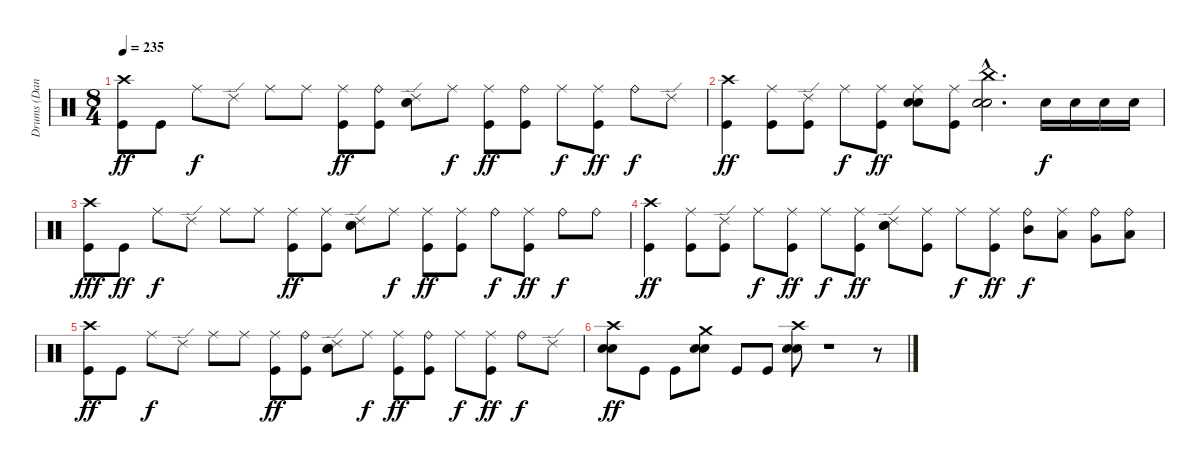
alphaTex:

\track ("Drums (Dan)" "Drums (Dan") {instrument percussion}
\staff {score}
\articulation defaults
\ts (8 4)
\tempo 235
\clef neutral
\ks c
("Kick (hit)" "Crash high (hit)").8{dy ff} "Kick (hit)".8 "Ride (middle)".8{dy f} "Ride (edge) 2".8 "Ride (middle)".8 "Ride (middle)".8 ("Kick (hit)" "Ride (middle)").8{dy ff} ("Kick (hit)" "Ride (bell)").8 ("Electric Snare (hit)" "Electric Snare (hit)" "Ride (edge) 2").8 "Ride (middle)".8{dy f} ("Kick (hit)" "Ride (middle)").8{dy ff} ("Kick (hit)" "Ride (bell)").8 "Ride (middle)".8{dy f} ("Kick (hit)" "Ride (middle)").8{dy ff} "Ride (bell)".8{dy f} "Ride (edge) 2".8 |
("Kick (hit)" "Crash high (hit)").4{dy ff} ("Kick (hit)" "Ride (middle)").8 ("Kick (hit)" "Ride (edge) 2").8 "Ride (middle)".8{dy f} ("Kick (hit)" "Ride (middle)").8{dy ff} ("Electric Snare (hit)" "Electric Snare (hit)" "Ride (middle)").8 ("Kick (hit)" "Ride (middle)").8 ("Electric Snare (hit)"{hac} "Electric Snare (hit)"{hac} "China (hit)"{hac}).2{d} "Electric Snare (hit)".16{dy f} "Electric Snare (hit)".16 "Electric Snare (hit)".16 "Electric Snare (hit)".16 |
("Kick (hit)" "Crash high (hit)").8{dy fff} "Kick (hit)".8{dy ff} "Ride (middle)".8{dy f} "Ride (edge) 2".8 "Ride (middle)".8 "Ride (middle)".8 ("Kick (hit)" "Ride (middle)").8{dy ff} ("Kick (hit)" "Ride (middle)").8 ("Electric Snare (hit)" "Electric Snare (hit)" "Ride (edge) 2").8 "Ride (middle)".8{dy f} ("Kick (hit)" "Ride (middle)").8{dy ff} ("Kick (hit)" "Ride (middle)").8 "Ride (bell)".8{dy f} ("Kick (hit)" "Ride (middle)").8{dy ff} "Ride (bell)".8{dy f} "Ride (bell)".8 |
("Kick (hit)" "Crash high (hit)").4{dy ff} ("Kick (hit)" "Ride (middle)").8 ("Kick (hit)" "Ride (edge) 2").8 "Ride (middle)".8{dy f} ("Kick (hit)" "Ride (middle)").8{dy ff} "Ride (middle)".8{dy f} ("Kick (hit)" "Ride (middle)").8{dy ff} ("Electric Snare (hit)" "Electric Snare (hit)" "Ride (edge) 2").8 ("Kick (hit)" "Ride (middle)").8 "Ride (middle)".8{dy f} ("Kick (hit)" "Ride (middle)").8{dy ff} ("Mid Tom (hit)" "Ride (bell)").8{dy f} ("Low Tom (hit)" "Ride (middle)").8 ("Very Low Tom (hit)" "Ride (bell)").8 ("Low Floor Tom (hit)" "Ride (bell)").8 |
("Kick (hit)" "Crash high (hit)").8{dy ff} "Kick (hit)".8 "Ride (middle)".8{dy f} "Ride (edge) 2".8 "Ride (middle)".8 "Ride (middle)".8 ("Kick (hit)" "Ride (middle)").8{dy ff} ("Kick (hit)" "Ride (bell)").8 ("Electric Snare (hit)" "Electric Snare (hit)" "Ride (edge) 2").8 "Ride (middle)".8{dy f} ("Kick (hit)" "Ride (middle)").8{dy ff} ("Kick (hit)" "Ride (bell)").8 "Ride (middle)".8{dy f} ("Kick (hit)" "Ride (middle)").8{dy ff} "Ride (bell)".8{dy f} "Ride (edge) 2".8 |
("Electric Snare (hit)" "Electric Snare (hit)" "Crash high (hit)").8{dy ff} "Kick (hit)".8 "Kick (hit)".8 ("Electric Snare (hit)" "Electric Snare (hit)" "Crash medium (hit)").8 "Kick (hit)".8 "Kick (hit)".8 ("Electric Snare (hit)" "Electric Snare (hit)" "Crash high (hit)").8 r.1{volume 3} r.8
